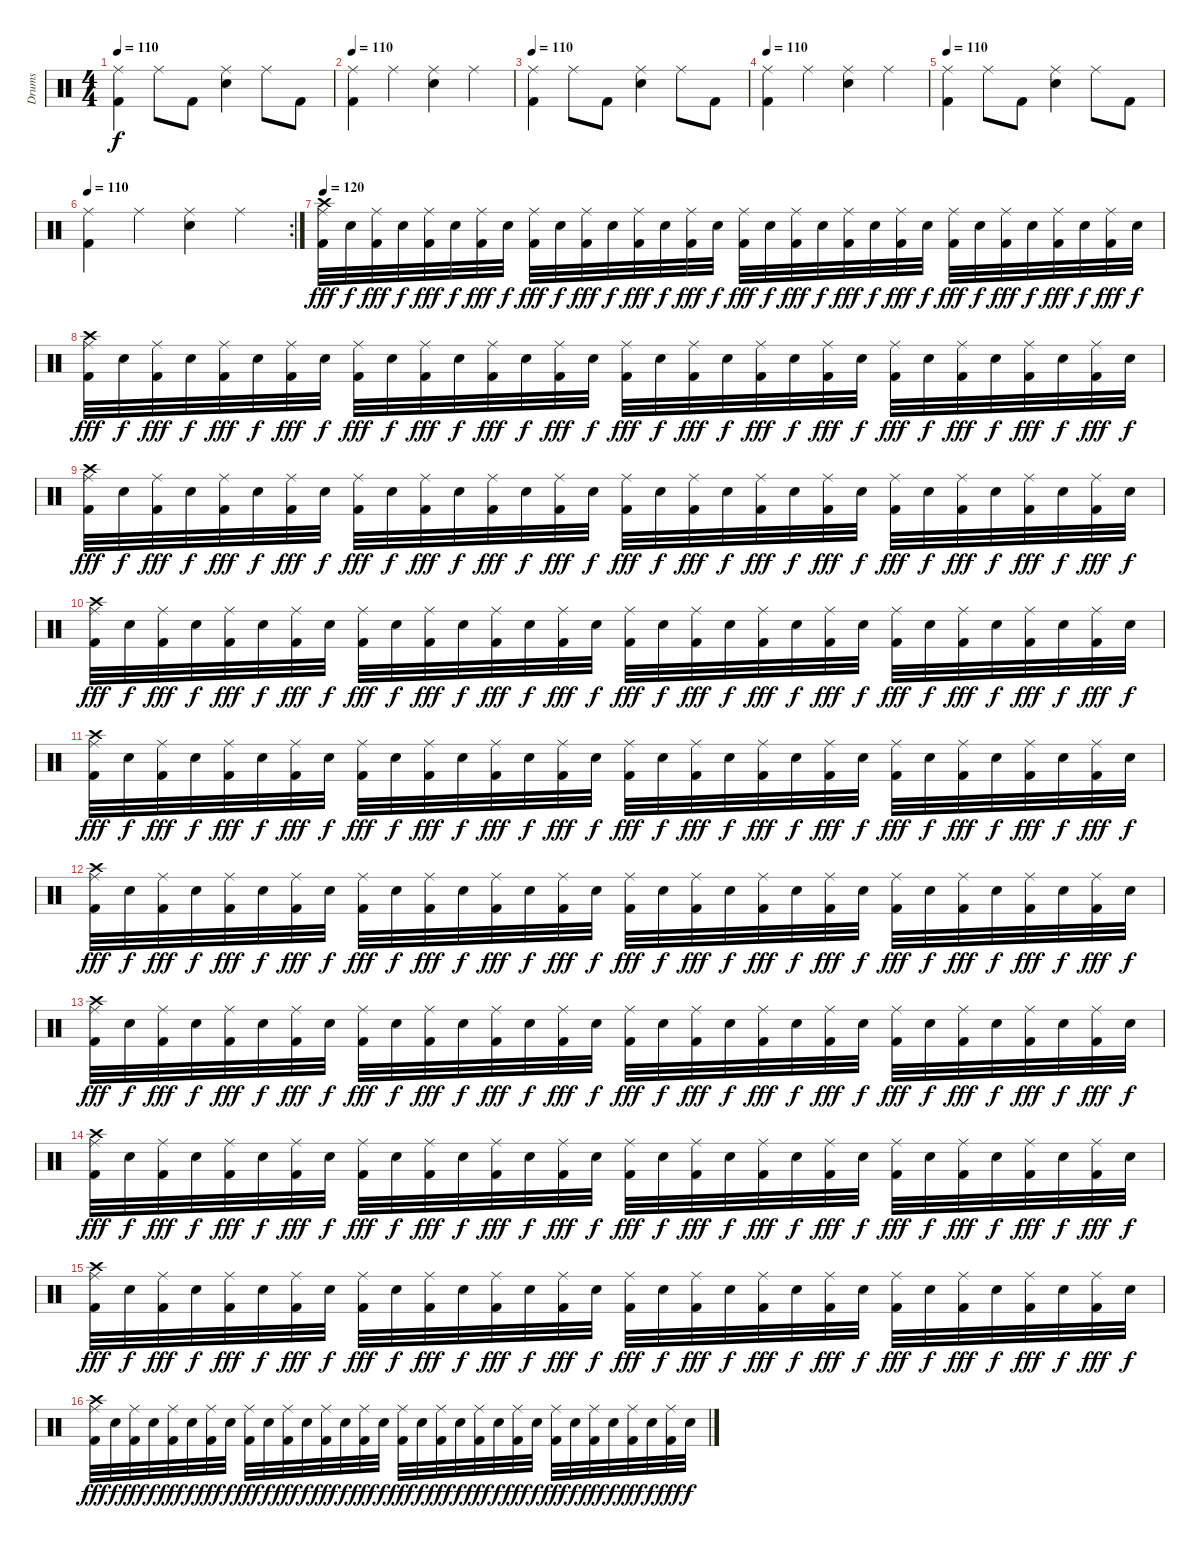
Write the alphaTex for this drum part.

\track ("Drums" "Drums") {instrument percussion}
\staff {score}
\articulation defaults
\ts (4 4)
\tempo 110
\clef neutral
\ks c
("Ride (middle)" "Kick (hit) 2").4{dy f} "Ride (middle)".8 "Kick (hit) 2".8 ("Ride (middle)" "Electric Snare (hit)").4 "Ride (middle)".8 "Kick (hit) 2".8 |
\tempo 110
("Ride (middle)" "Kick (hit) 2").4 "Ride (middle)".4 ("Ride (middle)" "Electric Snare (hit)").4 "Ride (middle)".4 |
\tempo 110
("Ride (middle)" "Kick (hit) 2").4 "Ride (middle)".8 "Kick (hit) 2".8 ("Ride (middle)" "Electric Snare (hit)").4 "Ride (middle)".8 "Kick (hit) 2".8 |
\tempo 110
("Ride (middle)" "Kick (hit) 2").4 "Ride (middle)".4 ("Ride (middle)" "Electric Snare (hit)").4 "Ride (middle)".4 |
\tempo 110
("Ride (middle)" "Kick (hit) 2").4 "Ride (middle)".8 "Kick (hit) 2".8 ("Ride (middle)" "Electric Snare (hit)").4 "Ride (middle)".8 "Kick (hit) 2".8 |
\rc 2
\tempo 110
("Ride (middle)" "Kick (hit) 2").4 "Ride (middle)".4 ("Ride (middle)" "Electric Snare (hit)").4 "Ride (middle)".4 |
\tempo 120
("Crash high (hit)" "Ride (middle)" "Kick (hit) 2").32{dy fff} "Electric Snare (hit)".32{dy f} ("Ride (middle)" "Kick (hit) 2").32{dy fff} "Electric Snare (hit)".32{dy f} ("Ride (middle)" "Kick (hit) 2").32{dy fff} "Electric Snare (hit)".32{dy f} ("Ride (middle)" "Kick (hit) 2").32{dy fff} "Electric Snare (hit)".32{dy f} ("Ride (middle)" "Kick (hit) 2").32{dy fff} "Electric Snare (hit)".32{dy f} ("Ride (middle)" "Kick (hit) 2").32{dy fff} "Electric Snare (hit)".32{dy f} ("Ride (middle)" "Kick (hit) 2").32{dy fff} "Electric Snare (hit)".32{dy f} ("Ride (middle)" "Kick (hit) 2").32{dy fff} "Electric Snare (hit)".32{dy f} ("Ride (middle)" "Kick (hit) 2").32{dy fff} "Electric Snare (hit)".32{dy f} ("Ride (middle)" "Kick (hit) 2").32{dy fff} "Electric Snare (hit)".32{dy f} ("Ride (middle)" "Kick (hit) 2").32{dy fff} "Electric Snare (hit)".32{dy f} ("Ride (middle)" "Kick (hit) 2").32{dy fff} "Electric Snare (hit)".32{dy f} ("Ride (middle)" "Kick (hit) 2").32{dy fff} "Electric Snare (hit)".32{dy f} ("Ride (middle)" "Kick (hit) 2").32{dy fff} "Electric Snare (hit)".32{dy f} ("Ride (middle)" "Kick (hit) 2").32{dy fff} "Electric Snare (hit)".32{dy f} ("Ride (middle)" "Kick (hit) 2").32{dy fff} "Electric Snare (hit)".32{dy f} |
("Crash high (hit)" "Ride (middle)" "Kick (hit) 2").32{dy fff} "Electric Snare (hit)".32{dy f} ("Ride (middle)" "Kick (hit) 2").32{dy fff} "Electric Snare (hit)".32{dy f} ("Ride (middle)" "Kick (hit) 2").32{dy fff} "Electric Snare (hit)".32{dy f} ("Ride (middle)" "Kick (hit) 2").32{dy fff} "Electric Snare (hit)".32{dy f} ("Ride (middle)" "Kick (hit) 2").32{dy fff} "Electric Snare (hit)".32{dy f} ("Ride (middle)" "Kick (hit) 2").32{dy fff} "Electric Snare (hit)".32{dy f} ("Ride (middle)" "Kick (hit) 2").32{dy fff} "Electric Snare (hit)".32{dy f} ("Ride (middle)" "Kick (hit) 2").32{dy fff} "Electric Snare (hit)".32{dy f} ("Ride (middle)" "Kick (hit) 2").32{dy fff} "Electric Snare (hit)".32{dy f} ("Ride (middle)" "Kick (hit) 2").32{dy fff} "Electric Snare (hit)".32{dy f} ("Ride (middle)" "Kick (hit) 2").32{dy fff} "Electric Snare (hit)".32{dy f} ("Ride (middle)" "Kick (hit) 2").32{dy fff} "Electric Snare (hit)".32{dy f} ("Ride (middle)" "Kick (hit) 2").32{dy fff} "Electric Snare (hit)".32{dy f} ("Ride (middle)" "Kick (hit) 2").32{dy fff} "Electric Snare (hit)".32{dy f} ("Ride (middle)" "Kick (hit) 2").32{dy fff} "Electric Snare (hit)".32{dy f} ("Ride (middle)" "Kick (hit) 2").32{dy fff} "Electric Snare (hit)".32{dy f} |
("Crash high (hit)" "Ride (middle)" "Kick (hit) 2").32{dy fff} "Electric Snare (hit)".32{dy f} ("Ride (middle)" "Kick (hit) 2").32{dy fff} "Electric Snare (hit)".32{dy f} ("Ride (middle)" "Kick (hit) 2").32{dy fff} "Electric Snare (hit)".32{dy f} ("Ride (middle)" "Kick (hit) 2").32{dy fff} "Electric Snare (hit)".32{dy f} ("Ride (middle)" "Kick (hit) 2").32{dy fff} "Electric Snare (hit)".32{dy f} ("Ride (middle)" "Kick (hit) 2").32{dy fff} "Electric Snare (hit)".32{dy f} ("Ride (middle)" "Kick (hit) 2").32{dy fff} "Electric Snare (hit)".32{dy f} ("Ride (middle)" "Kick (hit) 2").32{dy fff} "Electric Snare (hit)".32{dy f} ("Ride (middle)" "Kick (hit) 2").32{dy fff} "Electric Snare (hit)".32{dy f} ("Ride (middle)" "Kick (hit) 2").32{dy fff} "Electric Snare (hit)".32{dy f} ("Ride (middle)" "Kick (hit) 2").32{dy fff} "Electric Snare (hit)".32{dy f} ("Ride (middle)" "Kick (hit) 2").32{dy fff} "Electric Snare (hit)".32{dy f} ("Ride (middle)" "Kick (hit) 2").32{dy fff} "Electric Snare (hit)".32{dy f} ("Ride (middle)" "Kick (hit) 2").32{dy fff} "Electric Snare (hit)".32{dy f} ("Ride (middle)" "Kick (hit) 2").32{dy fff} "Electric Snare (hit)".32{dy f} ("Ride (middle)" "Kick (hit) 2").32{dy fff} "Electric Snare (hit)".32{dy f} |
("Crash high (hit)" "Ride (middle)" "Kick (hit) 2").32{dy fff} "Electric Snare (hit)".32{dy f} ("Ride (middle)" "Kick (hit) 2").32{dy fff} "Electric Snare (hit)".32{dy f} ("Ride (middle)" "Kick (hit) 2").32{dy fff} "Electric Snare (hit)".32{dy f} ("Ride (middle)" "Kick (hit) 2").32{dy fff} "Electric Snare (hit)".32{dy f} ("Ride (middle)" "Kick (hit) 2").32{dy fff} "Electric Snare (hit)".32{dy f} ("Ride (middle)" "Kick (hit) 2").32{dy fff} "Electric Snare (hit)".32{dy f} ("Ride (middle)" "Kick (hit) 2").32{dy fff} "Electric Snare (hit)".32{dy f} ("Ride (middle)" "Kick (hit) 2").32{dy fff} "Electric Snare (hit)".32{dy f} ("Ride (middle)" "Kick (hit) 2").32{dy fff} "Electric Snare (hit)".32{dy f} ("Ride (middle)" "Kick (hit) 2").32{dy fff} "Electric Snare (hit)".32{dy f} ("Ride (middle)" "Kick (hit) 2").32{dy fff} "Electric Snare (hit)".32{dy f} ("Ride (middle)" "Kick (hit) 2").32{dy fff} "Electric Snare (hit)".32{dy f} ("Ride (middle)" "Kick (hit) 2").32{dy fff} "Electric Snare (hit)".32{dy f} ("Ride (middle)" "Kick (hit) 2").32{dy fff} "Electric Snare (hit)".32{dy f} ("Ride (middle)" "Kick (hit) 2").32{dy fff} "Electric Snare (hit)".32{dy f} ("Ride (middle)" "Kick (hit) 2").32{dy fff} "Electric Snare (hit)".32{dy f} |
("Crash high (hit)" "Ride (middle)" "Kick (hit) 2").32{dy fff} "Electric Snare (hit)".32{dy f} ("Ride (middle)" "Kick (hit) 2").32{dy fff} "Electric Snare (hit)".32{dy f} ("Ride (middle)" "Kick (hit) 2").32{dy fff} "Electric Snare (hit)".32{dy f} ("Ride (middle)" "Kick (hit) 2").32{dy fff} "Electric Snare (hit)".32{dy f} ("Ride (middle)" "Kick (hit) 2").32{dy fff} "Electric Snare (hit)".32{dy f} ("Ride (middle)" "Kick (hit) 2").32{dy fff} "Electric Snare (hit)".32{dy f} ("Ride (middle)" "Kick (hit) 2").32{dy fff} "Electric Snare (hit)".32{dy f} ("Ride (middle)" "Kick (hit) 2").32{dy fff} "Electric Snare (hit)".32{dy f} ("Ride (middle)" "Kick (hit) 2").32{dy fff} "Electric Snare (hit)".32{dy f} ("Ride (middle)" "Kick (hit) 2").32{dy fff} "Electric Snare (hit)".32{dy f} ("Ride (middle)" "Kick (hit) 2").32{dy fff} "Electric Snare (hit)".32{dy f} ("Ride (middle)" "Kick (hit) 2").32{dy fff} "Electric Snare (hit)".32{dy f} ("Ride (middle)" "Kick (hit) 2").32{dy fff} "Electric Snare (hit)".32{dy f} ("Ride (middle)" "Kick (hit) 2").32{dy fff} "Electric Snare (hit)".32{dy f} ("Ride (middle)" "Kick (hit) 2").32{dy fff} "Electric Snare (hit)".32{dy f} ("Ride (middle)" "Kick (hit) 2").32{dy fff} "Electric Snare (hit)".32{dy f} |
("Crash high (hit)" "Ride (middle)" "Kick (hit) 2").32{dy fff} "Electric Snare (hit)".32{dy f} ("Ride (middle)" "Kick (hit) 2").32{dy fff} "Electric Snare (hit)".32{dy f} ("Ride (middle)" "Kick (hit) 2").32{dy fff} "Electric Snare (hit)".32{dy f} ("Ride (middle)" "Kick (hit) 2").32{dy fff} "Electric Snare (hit)".32{dy f} ("Ride (middle)" "Kick (hit) 2").32{dy fff} "Electric Snare (hit)".32{dy f} ("Ride (middle)" "Kick (hit) 2").32{dy fff} "Electric Snare (hit)".32{dy f} ("Ride (middle)" "Kick (hit) 2").32{dy fff} "Electric Snare (hit)".32{dy f} ("Ride (middle)" "Kick (hit) 2").32{dy fff} "Electric Snare (hit)".32{dy f} ("Ride (middle)" "Kick (hit) 2").32{dy fff} "Electric Snare (hit)".32{dy f} ("Ride (middle)" "Kick (hit) 2").32{dy fff} "Electric Snare (hit)".32{dy f} ("Ride (middle)" "Kick (hit) 2").32{dy fff} "Electric Snare (hit)".32{dy f} ("Ride (middle)" "Kick (hit) 2").32{dy fff} "Electric Snare (hit)".32{dy f} ("Ride (middle)" "Kick (hit) 2").32{dy fff} "Electric Snare (hit)".32{dy f} ("Ride (middle)" "Kick (hit) 2").32{dy fff} "Electric Snare (hit)".32{dy f} ("Ride (middle)" "Kick (hit) 2").32{dy fff} "Electric Snare (hit)".32{dy f} ("Ride (middle)" "Kick (hit) 2").32{dy fff} "Electric Snare (hit)".32{dy f} |
("Crash high (hit)" "Ride (middle)" "Kick (hit) 2").32{dy fff} "Electric Snare (hit)".32{dy f} ("Ride (middle)" "Kick (hit) 2").32{dy fff} "Electric Snare (hit)".32{dy f} ("Ride (middle)" "Kick (hit) 2").32{dy fff} "Electric Snare (hit)".32{dy f} ("Ride (middle)" "Kick (hit) 2").32{dy fff} "Electric Snare (hit)".32{dy f} ("Ride (middle)" "Kick (hit) 2").32{dy fff} "Electric Snare (hit)".32{dy f} ("Ride (middle)" "Kick (hit) 2").32{dy fff} "Electric Snare (hit)".32{dy f} ("Ride (middle)" "Kick (hit) 2").32{dy fff} "Electric Snare (hit)".32{dy f} ("Ride (middle)" "Kick (hit) 2").32{dy fff} "Electric Snare (hit)".32{dy f} ("Ride (middle)" "Kick (hit) 2").32{dy fff} "Electric Snare (hit)".32{dy f} ("Ride (middle)" "Kick (hit) 2").32{dy fff} "Electric Snare (hit)".32{dy f} ("Ride (middle)" "Kick (hit) 2").32{dy fff} "Electric Snare (hit)".32{dy f} ("Ride (middle)" "Kick (hit) 2").32{dy fff} "Electric Snare (hit)".32{dy f} ("Ride (middle)" "Kick (hit) 2").32{dy fff} "Electric Snare (hit)".32{dy f} ("Ride (middle)" "Kick (hit) 2").32{dy fff} "Electric Snare (hit)".32{dy f} ("Ride (middle)" "Kick (hit) 2").32{dy fff} "Electric Snare (hit)".32{dy f} ("Ride (middle)" "Kick (hit) 2").32{dy fff} "Electric Snare (hit)".32{dy f} |
("Crash high (hit)" "Ride (middle)" "Kick (hit) 2").32{dy fff} "Electric Snare (hit)".32{dy f} ("Ride (middle)" "Kick (hit) 2").32{dy fff} "Electric Snare (hit)".32{dy f} ("Ride (middle)" "Kick (hit) 2").32{dy fff} "Electric Snare (hit)".32{dy f} ("Ride (middle)" "Kick (hit) 2").32{dy fff} "Electric Snare (hit)".32{dy f} ("Ride (middle)" "Kick (hit) 2").32{dy fff} "Electric Snare (hit)".32{dy f} ("Ride (middle)" "Kick (hit) 2").32{dy fff} "Electric Snare (hit)".32{dy f} ("Ride (middle)" "Kick (hit) 2").32{dy fff} "Electric Snare (hit)".32{dy f} ("Ride (middle)" "Kick (hit) 2").32{dy fff} "Electric Snare (hit)".32{dy f} ("Ride (middle)" "Kick (hit) 2").32{dy fff} "Electric Snare (hit)".32{dy f} ("Ride (middle)" "Kick (hit) 2").32{dy fff} "Electric Snare (hit)".32{dy f} ("Ride (middle)" "Kick (hit) 2").32{dy fff} "Electric Snare (hit)".32{dy f} ("Ride (middle)" "Kick (hit) 2").32{dy fff} "Electric Snare (hit)".32{dy f} ("Ride (middle)" "Kick (hit) 2").32{dy fff} "Electric Snare (hit)".32{dy f} ("Ride (middle)" "Kick (hit) 2").32{dy fff} "Electric Snare (hit)".32{dy f} ("Ride (middle)" "Kick (hit) 2").32{dy fff} "Electric Snare (hit)".32{dy f} ("Ride (middle)" "Kick (hit) 2").32{dy fff} "Electric Snare (hit)".32{dy f} |
("Crash high (hit)" "Ride (middle)" "Kick (hit) 2").32{dy fff} "Electric Snare (hit)".32{dy f} ("Ride (middle)" "Kick (hit) 2").32{dy fff} "Electric Snare (hit)".32{dy f} ("Ride (middle)" "Kick (hit) 2").32{dy fff} "Electric Snare (hit)".32{dy f} ("Ride (middle)" "Kick (hit) 2").32{dy fff} "Electric Snare (hit)".32{dy f} ("Ride (middle)" "Kick (hit) 2").32{dy fff} "Electric Snare (hit)".32{dy f} ("Ride (middle)" "Kick (hit) 2").32{dy fff} "Electric Snare (hit)".32{dy f} ("Ride (middle)" "Kick (hit) 2").32{dy fff} "Electric Snare (hit)".32{dy f} ("Ride (middle)" "Kick (hit) 2").32{dy fff} "Electric Snare (hit)".32{dy f} ("Ride (middle)" "Kick (hit) 2").32{dy fff} "Electric Snare (hit)".32{dy f} ("Ride (middle)" "Kick (hit) 2").32{dy fff} "Electric Snare (hit)".32{dy f} ("Ride (middle)" "Kick (hit) 2").32{dy fff} "Electric Snare (hit)".32{dy f} ("Ride (middle)" "Kick (hit) 2").32{dy fff} "Electric Snare (hit)".32{dy f} ("Ride (middle)" "Kick (hit) 2").32{dy fff} "Electric Snare (hit)".32{dy f} ("Ride (middle)" "Kick (hit) 2").32{dy fff} "Electric Snare (hit)".32{dy f} ("Ride (middle)" "Kick (hit) 2").32{dy fff} "Electric Snare (hit)".32{dy f} ("Ride (middle)" "Kick (hit) 2").32{dy fff} "Electric Snare (hit)".32{dy f} |
("Crash high (hit)" "Ride (middle)" "Kick (hit) 2").32{dy fff} "Electric Snare (hit)".32{dy f} ("Ride (middle)" "Kick (hit) 2").32{dy fff} "Electric Snare (hit)".32{dy f} ("Ride (middle)" "Kick (hit) 2").32{dy fff} "Electric Snare (hit)".32{dy f} ("Ride (middle)" "Kick (hit) 2").32{dy fff} "Electric Snare (hit)".32{dy f} ("Ride (middle)" "Kick (hit) 2").32{dy fff} "Electric Snare (hit)".32{dy f} ("Ride (middle)" "Kick (hit) 2").32{dy fff} "Electric Snare (hit)".32{dy f} ("Ride (middle)" "Kick (hit) 2").32{dy fff} "Electric Snare (hit)".32{dy f} ("Ride (middle)" "Kick (hit) 2").32{dy fff} "Electric Snare (hit)".32{dy f} ("Ride (middle)" "Kick (hit) 2").32{dy fff} "Electric Snare (hit)".32{dy f} ("Ride (middle)" "Kick (hit) 2").32{dy fff} "Electric Snare (hit)".32{dy f} ("Ride (middle)" "Kick (hit) 2").32{dy fff} "Electric Snare (hit)".32{dy f} ("Ride (middle)" "Kick (hit) 2").32{dy fff} "Electric Snare (hit)".32{dy f} ("Ride (middle)" "Kick (hit) 2").32{dy fff} "Electric Snare (hit)".32{dy f} ("Ride (middle)" "Kick (hit) 2").32{dy fff} "Electric Snare (hit)".32{dy f} ("Ride (middle)" "Kick (hit) 2").32{dy fff} "Electric Snare (hit)".32{dy f} ("Ride (middle)" "Kick (hit) 2").32{dy fff} "Electric Snare (hit)".32{dy f}
